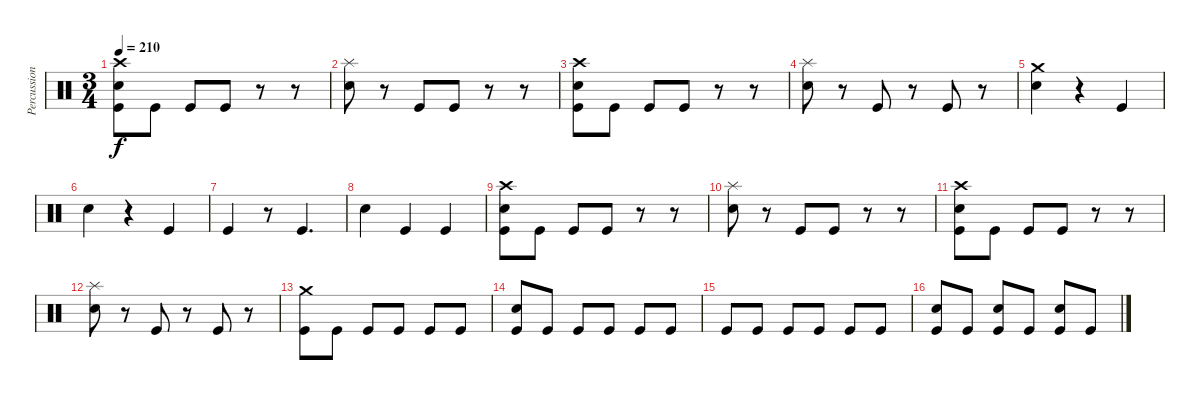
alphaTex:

\track ("Percussion" "Percussion") {instrument percussion}
\staff
\articulation defaults
\ts (3 4)
\tempo 210
\clef neutral
\ks c
("Crash high (hit)" "Snare (hit) 2" "Kick (hit)").8{dy f} "Kick (hit)".8 "Kick (hit)".8 "Kick (hit)".8 r.8 r.8 |
("Splash (hit)" "Snare (hit) 2").8 r.8 "Kick (hit)".8 "Kick (hit)".8 r.8 r.8 |
("Crash high (hit)" "Snare (hit) 2" "Kick (hit)").8 "Kick (hit)".8 "Kick (hit)".8 "Kick (hit)".8 r.8 r.8 |
("Splash (hit)" "Snare (hit) 2").8 r.8 "Kick (hit)".8 r.8 "Kick (hit)".8 r.8 |
("Crash medium (hit)" "Snare (hit) 2").4 r.4 "Kick (hit)".4 |
"Snare (hit) 2".4 r.4 "Kick (hit)".4 |
"Kick (hit)".4 r.8 "Kick (hit)".4{d} |
"Snare (hit) 2".4 "Kick (hit)".4 "Kick (hit)".4 |
("Crash high (hit)" "Snare (hit) 2" "Kick (hit)").8 "Kick (hit)".8 "Kick (hit)".8 "Kick (hit)".8 r.8 r.8 |
("Splash (hit)" "Snare (hit) 2").8 r.8 "Kick (hit)".8 "Kick (hit)".8 r.8 r.8 |
("Crash high (hit)" "Snare (hit) 2" "Kick (hit)").8 "Kick (hit)".8 "Kick (hit)".8 "Kick (hit)".8 r.8 r.8 |
("Splash (hit)" "Snare (hit) 2").8 r.8 "Kick (hit)".8 r.8 "Kick (hit)".8 r.8 |
("Crash medium (hit)" "Kick (hit)").8 "Kick (hit)".8 "Kick (hit)".8 "Kick (hit)".8 "Kick (hit)".8 "Kick (hit)".8 |
("Snare (hit) 2" "Kick (hit)").8 "Kick (hit)".8 "Kick (hit)".8 "Kick (hit)".8 "Kick (hit)".8 "Kick (hit)".8 |
"Kick (hit)".8 "Kick (hit)".8 "Kick (hit)".8 "Kick (hit)".8 "Kick (hit)".8 "Kick (hit)".8 |
("Snare (hit) 2" "Kick (hit)").8 "Kick (hit)".8 ("Snare (hit) 2" "Kick (hit)").8 "Kick (hit)".8 ("Snare (hit) 2" "Kick (hit)").8 "Kick (hit)".8
